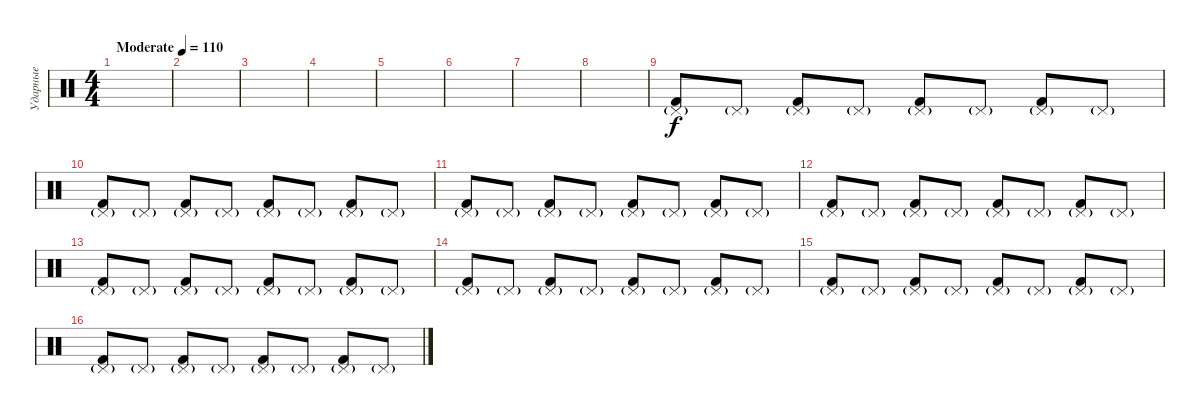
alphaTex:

\track ("Ударные" "Ударные") {instrument percussion}
\staff {score}
\articulation defaults
\ts (4 4)
\tempo (110 "Moderate")
\clef neutral
\ks c
|
|
|
|
|
|
|
|
("Kick (hit) 2" "Pedal Hi-Hat (hit)"{g}).8 "Pedal Hi-Hat (hit)"{g}.8 ("Kick (hit) 2" "Pedal Hi-Hat (hit)"{g}).8 "Pedal Hi-Hat (hit)"{g}.8 ("Kick (hit) 2" "Pedal Hi-Hat (hit)"{g}).8 "Pedal Hi-Hat (hit)"{g}.8 ("Kick (hit) 2" "Pedal Hi-Hat (hit)"{g}).8 "Pedal Hi-Hat (hit)"{g}.8 |
("Kick (hit) 2" "Pedal Hi-Hat (hit)"{g}).8 "Pedal Hi-Hat (hit)"{g}.8 ("Kick (hit) 2" "Pedal Hi-Hat (hit)"{g}).8 "Pedal Hi-Hat (hit)"{g}.8 ("Kick (hit) 2" "Pedal Hi-Hat (hit)"{g}).8 "Pedal Hi-Hat (hit)"{g}.8 ("Kick (hit) 2" "Pedal Hi-Hat (hit)"{g}).8 "Pedal Hi-Hat (hit)"{g}.8 |
("Kick (hit) 2" "Pedal Hi-Hat (hit)"{g}).8 "Pedal Hi-Hat (hit)"{g}.8 ("Kick (hit) 2" "Pedal Hi-Hat (hit)"{g}).8 "Pedal Hi-Hat (hit)"{g}.8 ("Kick (hit) 2" "Pedal Hi-Hat (hit)"{g}).8 "Pedal Hi-Hat (hit)"{g}.8 ("Kick (hit) 2" "Pedal Hi-Hat (hit)"{g}).8 "Pedal Hi-Hat (hit)"{g}.8 |
("Kick (hit) 2" "Pedal Hi-Hat (hit)"{g}).8 "Pedal Hi-Hat (hit)"{g}.8 ("Kick (hit) 2" "Pedal Hi-Hat (hit)"{g}).8 "Pedal Hi-Hat (hit)"{g}.8 ("Kick (hit) 2" "Pedal Hi-Hat (hit)"{g}).8 "Pedal Hi-Hat (hit)"{g}.8 ("Kick (hit) 2" "Pedal Hi-Hat (hit)"{g}).8 "Pedal Hi-Hat (hit)"{g}.8 |
("Kick (hit) 2" "Pedal Hi-Hat (hit)"{g}).8 "Pedal Hi-Hat (hit)"{g}.8 ("Kick (hit) 2" "Pedal Hi-Hat (hit)"{g}).8 "Pedal Hi-Hat (hit)"{g}.8 ("Kick (hit) 2" "Pedal Hi-Hat (hit)"{g}).8 "Pedal Hi-Hat (hit)"{g}.8 ("Kick (hit) 2" "Pedal Hi-Hat (hit)"{g}).8 "Pedal Hi-Hat (hit)"{g}.8 |
("Kick (hit) 2" "Pedal Hi-Hat (hit)"{g}).8 "Pedal Hi-Hat (hit)"{g}.8 ("Kick (hit) 2" "Pedal Hi-Hat (hit)"{g}).8 "Pedal Hi-Hat (hit)"{g}.8 ("Kick (hit) 2" "Pedal Hi-Hat (hit)"{g}).8 "Pedal Hi-Hat (hit)"{g}.8 ("Kick (hit) 2" "Pedal Hi-Hat (hit)"{g}).8 "Pedal Hi-Hat (hit)"{g}.8 |
("Kick (hit) 2" "Pedal Hi-Hat (hit)"{g}).8 "Pedal Hi-Hat (hit)"{g}.8 ("Kick (hit) 2" "Pedal Hi-Hat (hit)"{g}).8 "Pedal Hi-Hat (hit)"{g}.8 ("Kick (hit) 2" "Pedal Hi-Hat (hit)"{g}).8 "Pedal Hi-Hat (hit)"{g}.8 ("Kick (hit) 2" "Pedal Hi-Hat (hit)"{g}).8 "Pedal Hi-Hat (hit)"{g}.8 |
("Kick (hit) 2" "Pedal Hi-Hat (hit)"{g}).8 "Pedal Hi-Hat (hit)"{g}.8 ("Kick (hit) 2" "Pedal Hi-Hat (hit)"{g}).8 "Pedal Hi-Hat (hit)"{g}.8 ("Kick (hit) 2" "Pedal Hi-Hat (hit)"{g}).8 "Pedal Hi-Hat (hit)"{g}.8 ("Kick (hit) 2" "Pedal Hi-Hat (hit)"{g}).8 "Pedal Hi-Hat (hit)"{g}.8
